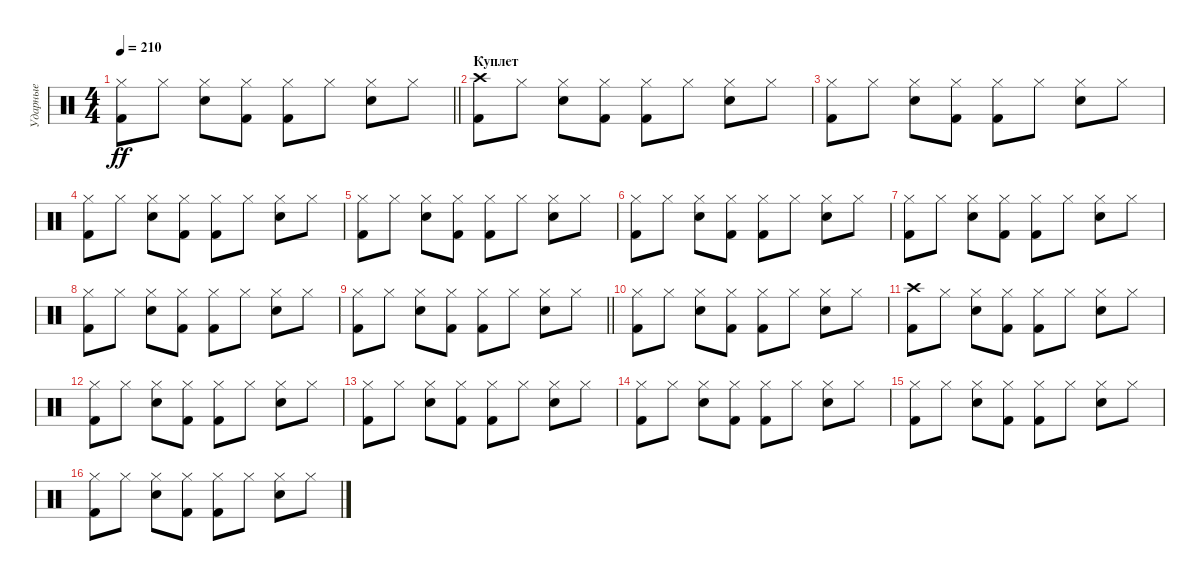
\track ("Ударные" "Ударные") {instrument percussion}
\staff {score}
\articulation defaults
\ts (4 4)
\tempo 210
\clef neutral
\barLineRight lightlight
\ks c
("Hi-Hat (closed)" "Kick (hit) 2").8{dy ff} "Hi-Hat (closed)".8 ("Hi-Hat (closed)" "Snare (hit) 2").8 ("Hi-Hat (closed)" "Kick (hit) 2").8 ("Hi-Hat (closed)" "Kick (hit) 2").8 "Hi-Hat (closed)".8 ("Hi-Hat (closed)" "Snare (hit) 2").8 "Hi-Hat (closed)".8 |
\section ("" "Куплет")
("Crash high (hit)" "Kick (hit) 2").8 "Hi-Hat (closed)".8 ("Hi-Hat (closed)" "Snare (hit) 2").8 ("Hi-Hat (closed)" "Kick (hit) 2").8 ("Hi-Hat (closed)" "Kick (hit) 2").8 "Hi-Hat (closed)".8 ("Hi-Hat (closed)" "Snare (hit) 2").8 "Hi-Hat (closed)".8 |
("Hi-Hat (closed)" "Kick (hit) 2").8 "Hi-Hat (closed)".8 ("Hi-Hat (closed)" "Snare (hit) 2").8 ("Hi-Hat (closed)" "Kick (hit) 2").8 ("Hi-Hat (closed)" "Kick (hit) 2").8 "Hi-Hat (closed)".8 ("Hi-Hat (closed)" "Snare (hit) 2").8 "Hi-Hat (closed)".8 |
("Hi-Hat (closed)" "Kick (hit) 2").8 "Hi-Hat (closed)".8 ("Hi-Hat (closed)" "Snare (hit) 2").8 ("Hi-Hat (closed)" "Kick (hit) 2").8 ("Hi-Hat (closed)" "Kick (hit) 2").8 "Hi-Hat (closed)".8 ("Hi-Hat (closed)" "Snare (hit) 2").8 "Hi-Hat (closed)".8 |
("Hi-Hat (closed)" "Kick (hit) 2").8 "Hi-Hat (closed)".8 ("Hi-Hat (closed)" "Snare (hit) 2").8 ("Hi-Hat (closed)" "Kick (hit) 2").8 ("Hi-Hat (closed)" "Kick (hit) 2").8 "Hi-Hat (closed)".8 ("Hi-Hat (closed)" "Snare (hit) 2").8 "Hi-Hat (closed)".8 |
("Hi-Hat (closed)" "Kick (hit) 2").8 "Hi-Hat (closed)".8 ("Hi-Hat (closed)" "Snare (hit) 2").8 ("Hi-Hat (closed)" "Kick (hit) 2").8 ("Hi-Hat (closed)" "Kick (hit) 2").8 "Hi-Hat (closed)".8 ("Hi-Hat (closed)" "Snare (hit) 2").8 "Hi-Hat (closed)".8 |
("Hi-Hat (closed)" "Kick (hit) 2").8 "Hi-Hat (closed)".8 ("Hi-Hat (closed)" "Snare (hit) 2").8 ("Hi-Hat (closed)" "Kick (hit) 2").8 ("Hi-Hat (closed)" "Kick (hit) 2").8 "Hi-Hat (closed)".8 ("Hi-Hat (closed)" "Snare (hit) 2").8 "Hi-Hat (closed)".8 |
("Hi-Hat (closed)" "Kick (hit) 2").8 "Hi-Hat (closed)".8 ("Hi-Hat (closed)" "Snare (hit) 2").8 ("Hi-Hat (closed)" "Kick (hit) 2").8 ("Hi-Hat (closed)" "Kick (hit) 2").8 "Hi-Hat (closed)".8 ("Hi-Hat (closed)" "Snare (hit) 2").8 "Hi-Hat (closed)".8 |
\barLineRight lightlight
("Hi-Hat (closed)" "Kick (hit) 2").8 "Hi-Hat (closed)".8 ("Hi-Hat (closed)" "Snare (hit) 2").8 ("Hi-Hat (closed)" "Kick (hit) 2").8 ("Hi-Hat (closed)" "Kick (hit) 2").8 "Hi-Hat (closed)".8 ("Hi-Hat (closed)" "Snare (hit) 2").8 "Hi-Hat (closed)".8 |
("Hi-Hat (closed)" "Kick (hit) 2").8 "Hi-Hat (closed)".8 ("Hi-Hat (closed)" "Snare (hit) 2").8 ("Hi-Hat (closed)" "Kick (hit) 2").8 ("Hi-Hat (closed)" "Kick (hit) 2").8 "Hi-Hat (closed)".8 ("Hi-Hat (closed)" "Snare (hit) 2").8 "Hi-Hat (closed)".8 |
("Crash high (hit)" "Kick (hit) 2").8 "Hi-Hat (closed)".8 ("Hi-Hat (closed)" "Snare (hit) 2").8 ("Hi-Hat (closed)" "Kick (hit) 2").8 ("Hi-Hat (closed)" "Kick (hit) 2").8 "Hi-Hat (closed)".8 ("Hi-Hat (closed)" "Snare (hit) 2").8 "Hi-Hat (closed)".8 |
("Hi-Hat (closed)" "Kick (hit) 2").8 "Hi-Hat (closed)".8 ("Hi-Hat (closed)" "Snare (hit) 2").8 ("Hi-Hat (closed)" "Kick (hit) 2").8 ("Hi-Hat (closed)" "Kick (hit) 2").8 "Hi-Hat (closed)".8 ("Hi-Hat (closed)" "Snare (hit) 2").8 "Hi-Hat (closed)".8 |
("Hi-Hat (closed)" "Kick (hit) 2").8 "Hi-Hat (closed)".8 ("Hi-Hat (closed)" "Snare (hit) 2").8 ("Hi-Hat (closed)" "Kick (hit) 2").8 ("Hi-Hat (closed)" "Kick (hit) 2").8 "Hi-Hat (closed)".8 ("Hi-Hat (closed)" "Snare (hit) 2").8 "Hi-Hat (closed)".8 |
("Hi-Hat (closed)" "Kick (hit) 2").8 "Hi-Hat (closed)".8 ("Hi-Hat (closed)" "Snare (hit) 2").8 ("Hi-Hat (closed)" "Kick (hit) 2").8 ("Hi-Hat (closed)" "Kick (hit) 2").8 "Hi-Hat (closed)".8 ("Hi-Hat (closed)" "Snare (hit) 2").8 "Hi-Hat (closed)".8 |
("Hi-Hat (closed)" "Kick (hit) 2").8 "Hi-Hat (closed)".8 ("Hi-Hat (closed)" "Snare (hit) 2").8 ("Hi-Hat (closed)" "Kick (hit) 2").8 ("Hi-Hat (closed)" "Kick (hit) 2").8 "Hi-Hat (closed)".8 ("Hi-Hat (closed)" "Snare (hit) 2").8 "Hi-Hat (closed)".8 |
("Hi-Hat (closed)" "Kick (hit) 2").8 "Hi-Hat (closed)".8 ("Hi-Hat (closed)" "Snare (hit) 2").8 ("Hi-Hat (closed)" "Kick (hit) 2").8 ("Hi-Hat (closed)" "Kick (hit) 2").8 "Hi-Hat (closed)".8 ("Hi-Hat (closed)" "Snare (hit) 2").8 "Hi-Hat (closed)".8
